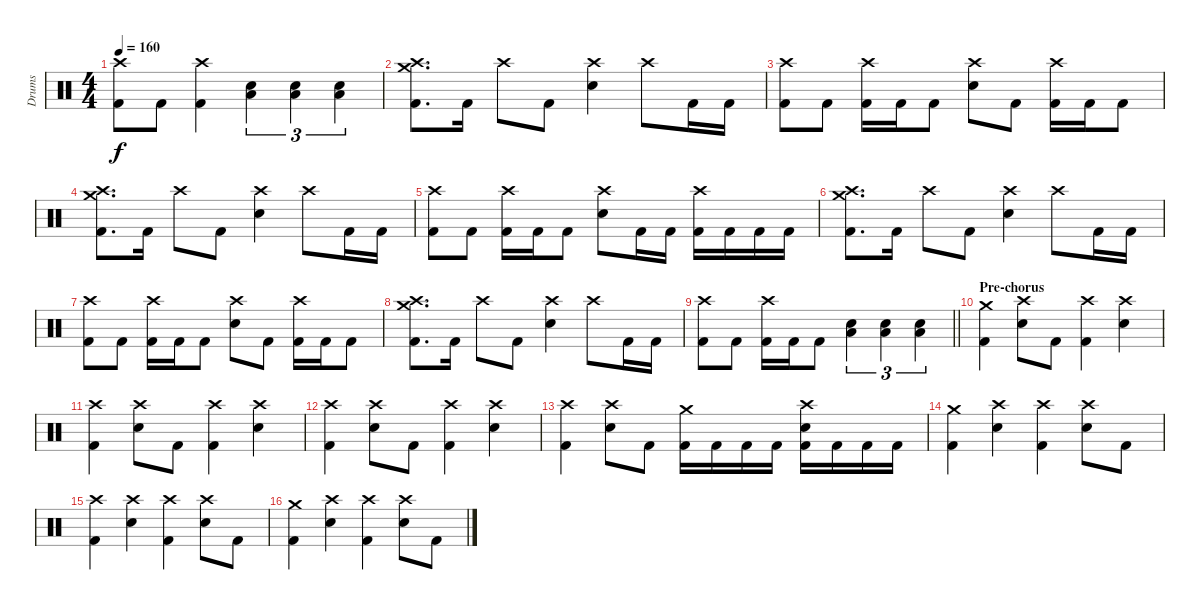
\track ("Drums" "Drums") {instrument percussion}
\staff {score}
\articulation defaults
\ts (4 4)
\tempo 160
\clef neutral
\ks c
("Crash high (hit)" "Kick (hit) 2").8{dy f} "Kick (hit) 2".8 ("Crash high (hit)" "Kick (hit) 2").4 ("Low Floor Tom (hit)" "Electric Snare (hit)").4{tu (3 2)} ("Low Floor Tom (hit)" "Electric Snare (hit)").4{tu (3 2)} ("Low Floor Tom (hit)" "Electric Snare (hit)").4{tu (3 2)} |
("Crash high (hit)" "Crash medium (hit)" "Kick (hit) 2").8{d} "Kick (hit) 2".16 "Crash high (hit)".8 "Kick (hit) 2".8 ("Crash high (hit)" "Electric Snare (hit)").4 "Crash high (hit)".8 "Kick (hit) 2".16 "Kick (hit) 2".16 |
("Crash high (hit)" "Kick (hit) 2").8 "Kick (hit) 2".8 ("Crash high (hit)" "Kick (hit) 2").16 "Kick (hit) 2".16 "Kick (hit) 2".8 ("Crash high (hit)" "Electric Snare (hit)").8 "Kick (hit) 2".8 ("Crash high (hit)" "Kick (hit) 2").16 "Kick (hit) 2".16 "Kick (hit) 2".8 |
("Crash high (hit)" "Crash medium (hit)" "Kick (hit) 2").8{d} "Kick (hit) 2".16 "Crash high (hit)".8 "Kick (hit) 2".8 ("Crash high (hit)" "Electric Snare (hit)").4 "Crash high (hit)".8 "Kick (hit) 2".16 "Kick (hit) 2".16 |
("Crash high (hit)" "Kick (hit) 2").8 "Kick (hit) 2".8 ("Crash high (hit)" "Kick (hit) 2").16 "Kick (hit) 2".16 "Kick (hit) 2".8 ("Crash high (hit)" "Electric Snare (hit)").8 "Kick (hit) 2".16 "Kick (hit) 2".16 ("Crash high (hit)" "Kick (hit) 2").16 "Kick (hit) 2".16 "Kick (hit) 2".16 "Kick (hit) 2".16 |
("Crash high (hit)" "Crash medium (hit)" "Kick (hit) 2").8{d} "Kick (hit) 2".16 "Crash high (hit)".8 "Kick (hit) 2".8 ("Crash high (hit)" "Electric Snare (hit)").4 "Crash high (hit)".8 "Kick (hit) 2".16 "Kick (hit) 2".16 |
("Crash high (hit)" "Kick (hit) 2").8 "Kick (hit) 2".8 ("Crash high (hit)" "Kick (hit) 2").16 "Kick (hit) 2".16 "Kick (hit) 2".8 ("Crash high (hit)" "Electric Snare (hit)").8 "Kick (hit) 2".8 ("Crash high (hit)" "Kick (hit) 2").16 "Kick (hit) 2".16 "Kick (hit) 2".8 |
("Crash high (hit)" "Crash medium (hit)" "Kick (hit) 2").8{d} "Kick (hit) 2".16 "Crash high (hit)".8 "Kick (hit) 2".8 ("Crash high (hit)" "Electric Snare (hit)").4 "Crash high (hit)".8 "Kick (hit) 2".16 "Kick (hit) 2".16 |
\barLineRight lightlight
("Crash high (hit)" "Kick (hit) 2").8 "Kick (hit) 2".8 ("Crash high (hit)" "Kick (hit) 2").16 "Kick (hit) 2".16 "Kick (hit) 2".8 ("Low Floor Tom (hit)" "Electric Snare (hit)").4{tu (3 2)} ("Low Floor Tom (hit)" "Electric Snare (hit)").4{tu (3 2)} ("Low Floor Tom (hit)" "Electric Snare (hit)").4{tu (3 2)} |
\section ("" "Pre-chorus")
("Crash medium (hit)" "Kick (hit) 2").4 ("Crash high (hit)" "Electric Snare (hit)").8 "Kick (hit) 2".8 ("Crash high (hit)" "Kick (hit) 2").4 ("Crash high (hit)" "Electric Snare (hit)").4 |
("Crash high (hit)" "Kick (hit) 2").4 ("Crash high (hit)" "Electric Snare (hit)").8 "Kick (hit) 2".8 ("Crash high (hit)" "Kick (hit) 2").4 ("Crash high (hit)" "Electric Snare (hit)").4 |
("Crash high (hit)" "Kick (hit) 2").4 ("Crash high (hit)" "Electric Snare (hit)").8 "Kick (hit) 2".8 ("Crash high (hit)" "Kick (hit) 2").4 ("Crash high (hit)" "Electric Snare (hit)").4 |
("Crash high (hit)" "Kick (hit) 2").4 ("Crash high (hit)" "Electric Snare (hit)").8 "Kick (hit) 2".8 ("Crash medium (hit)" "Kick (hit) 2").16 "Kick (hit) 2".16 "Kick (hit) 2".16 "Kick (hit) 2".16 ("Crash high (hit)" "Electric Snare (hit)" "Kick (hit) 2").16 "Kick (hit) 2".16 "Kick (hit) 2".16 "Kick (hit) 2".16 |
("Crash medium (hit)" "Kick (hit) 2").4 ("Crash high (hit)" "Electric Snare (hit)").4 ("Crash high (hit)" "Kick (hit) 2").4 ("Crash high (hit)" "Electric Snare (hit)").8 "Kick (hit) 2".8 |
("Crash high (hit)" "Kick (hit) 2").4 ("Crash high (hit)" "Electric Snare (hit)").4 ("Crash high (hit)" "Kick (hit) 2").4 ("Crash high (hit)" "Electric Snare (hit)").8 "Kick (hit) 2".8 |
("Crash medium (hit)" "Kick (hit) 2").4 ("Crash high (hit)" "Electric Snare (hit)").4 ("Crash high (hit)" "Kick (hit) 2").4 ("Crash high (hit)" "Electric Snare (hit)").8 "Kick (hit) 2".8
